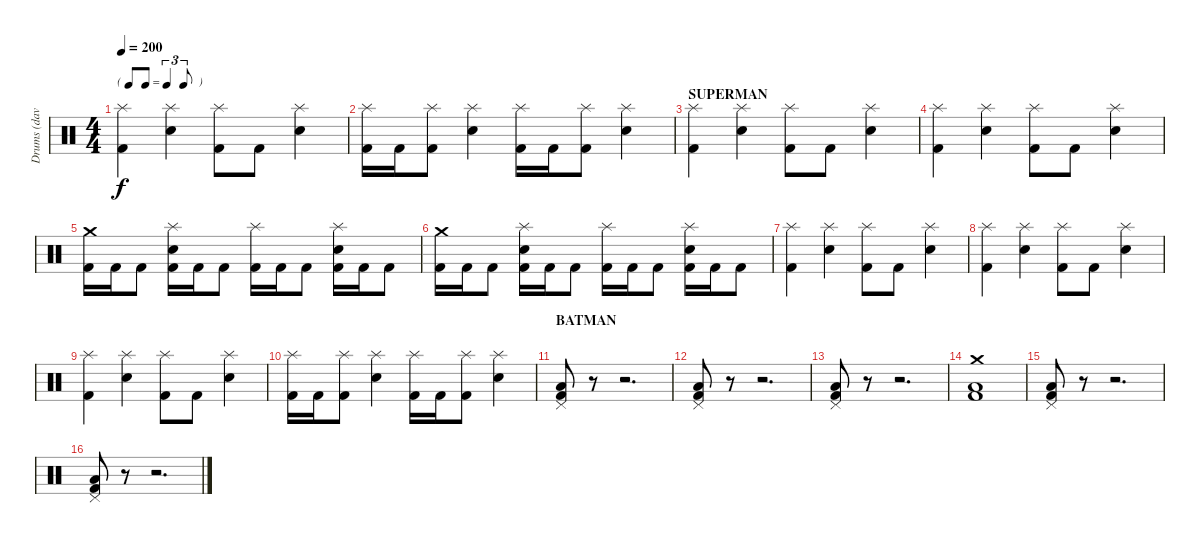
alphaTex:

\track ("Drums (dave)" "Drums (dav") {instrument percussion}
\staff {score}
\articulation defaults
\ts (4 4)
\tf triplet8th
\tempo 200
\clef neutral
\ks c
("Splash (hit)" "Kick (hit) 2").4{dy f} ("Splash (hit)" "Snare (hit) 2").4 ("Splash (hit)" "Kick (hit) 2").8 "Kick (hit) 2".8 ("Splash (hit)" "Snare (hit) 2").4 |
("Splash (hit)" "Kick (hit) 2").16 "Kick (hit) 2".16 ("Splash (hit)" "Kick (hit) 2").8 ("Splash (hit)" "Snare (hit) 2").4 ("Splash (hit)" "Kick (hit) 2").16 "Kick (hit) 2".16 ("Splash (hit)" "Kick (hit) 2").8 ("Splash (hit)" "Snare (hit) 2").4 |
\section ("" "SUPERMAN")
("Splash (hit)" "Kick (hit) 2").4 ("Splash (hit)" "Snare (hit) 2").4 ("Splash (hit)" "Kick (hit) 2").8 "Kick (hit) 2".8 ("Splash (hit)" "Snare (hit) 2").4 |
("Splash (hit)" "Kick (hit) 2").4 ("Splash (hit)" "Snare (hit) 2").4 ("Splash (hit)" "Kick (hit) 2").8 "Kick (hit) 2".8 ("Splash (hit)" "Snare (hit) 2").4 |
("Crash medium (hit)" "Kick (hit) 2").16 "Kick (hit) 2".16 "Kick (hit) 2".8 ("Splash (hit)" "Snare (hit) 2" "Kick (hit) 2").16 "Kick (hit) 2".16 "Kick (hit) 2".8 ("Splash (hit)" "Kick (hit) 2").16 "Kick (hit) 2".16 "Kick (hit) 2".8 ("Splash (hit)" "Snare (hit) 2" "Kick (hit) 2").16 "Kick (hit) 2".16 "Kick (hit) 2".8 |
("Crash medium (hit)" "Kick (hit) 2").16 "Kick (hit) 2".16 "Kick (hit) 2".8 ("Splash (hit)" "Snare (hit) 2" "Kick (hit) 2").16 "Kick (hit) 2".16 "Kick (hit) 2".8 ("Splash (hit)" "Kick (hit) 2").16 "Kick (hit) 2".16 "Kick (hit) 2".8 ("Splash (hit)" "Snare (hit) 2" "Kick (hit) 2").16 "Kick (hit) 2".16 "Kick (hit) 2".8 |
("Splash (hit)" "Kick (hit) 2").4 ("Splash (hit)" "Snare (hit) 2").4 ("Splash (hit)" "Kick (hit) 2").8 "Kick (hit) 2".8 ("Splash (hit)" "Snare (hit) 2").4 |
("Splash (hit)" "Kick (hit) 2").4 ("Splash (hit)" "Snare (hit) 2").4 ("Splash (hit)" "Kick (hit) 2").8 "Kick (hit) 2".8 ("Splash (hit)" "Snare (hit) 2").4 |
("Splash (hit)" "Kick (hit) 2").4 ("Splash (hit)" "Snare (hit) 2").4 ("Splash (hit)" "Kick (hit) 2").8 "Kick (hit) 2".8 ("Splash (hit)" "Snare (hit) 2").4 |
("Splash (hit)" "Kick (hit) 2").16 "Kick (hit) 2".16 ("Splash (hit)" "Kick (hit) 2").8 ("Splash (hit)" "Snare (hit) 2").4 ("Splash (hit)" "Kick (hit) 2").16 "Kick (hit) 2".16 ("Splash (hit)" "Kick (hit) 2").8 ("Splash (hit)" "Snare (hit) 2").4 |
\section ("" "BATMAN")
("Pedal Hi-Hat (hit)" "Kick (hit) 2" "Low Floor Tom (hit)").8 r.8 r.2{d} |
("Pedal Hi-Hat (hit)" "Kick (hit) 2" "Low Floor Tom (hit)").8 r.8 r.2{d} |
("Pedal Hi-Hat (hit)" "Kick (hit) 2" "Low Floor Tom (hit)").8 r.8 r.2{d} |
("Crash medium (hit)" "Kick (hit) 2" "Low Floor Tom (hit)").1 |
("Pedal Hi-Hat (hit)" "Kick (hit) 2" "Low Floor Tom (hit)").8 r.8 r.2{d} |
("Pedal Hi-Hat (hit)" "Kick (hit) 2" "Low Floor Tom (hit)").8 r.8 r.2{d}
